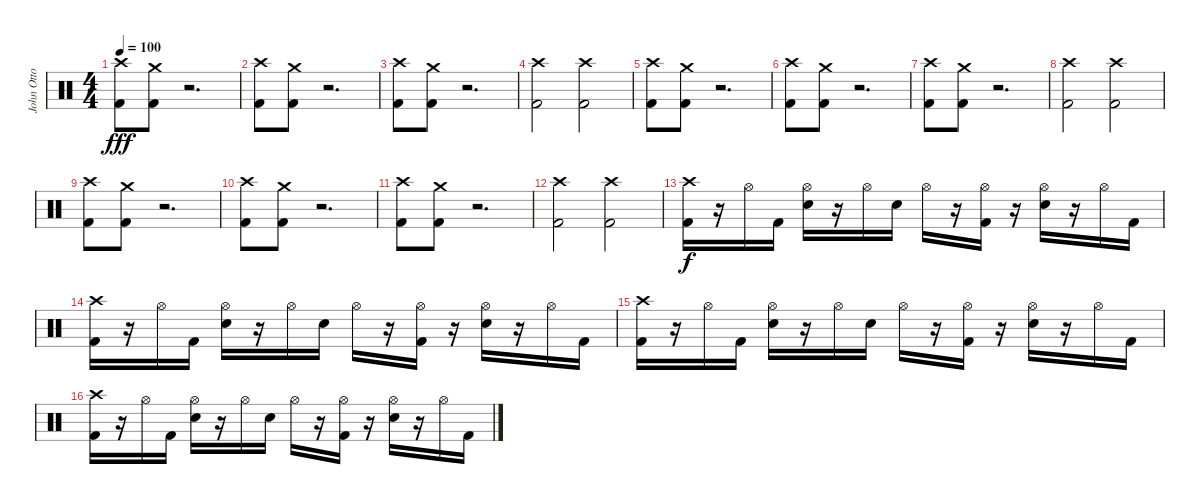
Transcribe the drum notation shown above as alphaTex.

\track ("John Otto - Drums" "John Otto ") {instrument percussion}
\staff {score}
\articulation defaults
\ts (4 4)
\tempo 100
\clef neutral
\ks c
("Crash high (hit)" "Kick (hit) 2").8{dy fff} ("Crash medium (hit)" "Kick (hit) 2").8 r.2{d} |
("Crash high (hit)" "Kick (hit) 2").8 ("Crash medium (hit)" "Kick (hit) 2").8 r.2{d} |
("Crash high (hit)" "Kick (hit) 2").8 ("Crash medium (hit)" "Kick (hit) 2").8 r.2{d} |
("Crash high (hit)" "Kick (hit) 2").2 ("Crash high (hit)" "Kick (hit) 2").2 |
("Crash high (hit)" "Kick (hit) 2").8 ("Crash medium (hit)" "Kick (hit) 2").8 r.2{d} |
("Crash high (hit)" "Kick (hit) 2").8 ("Crash medium (hit)" "Kick (hit) 2").8 r.2{d} |
("Crash high (hit)" "Kick (hit) 2").8 ("Crash medium (hit)" "Kick (hit) 2").8 r.2{d} |
("Crash high (hit)" "Kick (hit) 2").2 ("Crash high (hit)" "Kick (hit) 2").2 |
("Crash high (hit)" "Kick (hit) 2").8 ("Crash medium (hit)" "Kick (hit) 2").8 r.2{d} |
("Crash high (hit)" "Kick (hit) 2").8 ("Crash medium (hit)" "Kick (hit) 2").8 r.2{d} |
("Crash high (hit)" "Kick (hit) 2").8 ("Crash medium (hit)" "Kick (hit) 2").8 r.2{d} |
("Crash high (hit)" "Kick (hit) 2").2 ("Crash high (hit)" "Kick (hit) 2").2 |
("Crash high (hit)" "Kick (hit) 2").16{dy f} r.16 "Hi-Hat (open)".16 "Kick (hit) 2".16 ("Hi-Hat (open)" "Electric Snare (hit)").16 r.16 "Hi-Hat (open)".16 "Electric Snare (hit)".16 "Hi-Hat (open)".16 r.16 ("Hi-Hat (open)" "Kick (hit) 2").16 r.16 ("Hi-Hat (open)" "Electric Snare (hit)").16 r.16 "Hi-Hat (open)".16 "Kick (hit) 2".16 |
("Crash high (hit)" "Kick (hit) 2").16 r.16 "Hi-Hat (open)".16 "Kick (hit) 2".16 ("Hi-Hat (open)" "Electric Snare (hit)").16 r.16 "Hi-Hat (open)".16 "Electric Snare (hit)".16 "Hi-Hat (open)".16 r.16 ("Hi-Hat (open)" "Kick (hit) 2").16 r.16 ("Hi-Hat (open)" "Electric Snare (hit)").16 r.16 "Hi-Hat (open)".16 "Kick (hit) 2".16 |
("Crash high (hit)" "Kick (hit) 2").16 r.16 "Hi-Hat (open)".16 "Kick (hit) 2".16 ("Hi-Hat (open)" "Electric Snare (hit)").16 r.16 "Hi-Hat (open)".16 "Electric Snare (hit)".16 "Hi-Hat (open)".16 r.16 ("Hi-Hat (open)" "Kick (hit) 2").16 r.16 ("Hi-Hat (open)" "Electric Snare (hit)").16 r.16 "Hi-Hat (open)".16 "Kick (hit) 2".16 |
("Crash high (hit)" "Kick (hit) 2").16 r.16 "Hi-Hat (open)".16 "Kick (hit) 2".16 ("Hi-Hat (open)" "Electric Snare (hit)").16 r.16 "Hi-Hat (open)".16 "Electric Snare (hit)".16 "Hi-Hat (open)".16 r.16 ("Hi-Hat (open)" "Kick (hit) 2").16 r.16 ("Hi-Hat (open)" "Electric Snare (hit)").16 r.16 "Hi-Hat (open)".16 "Kick (hit) 2".16
